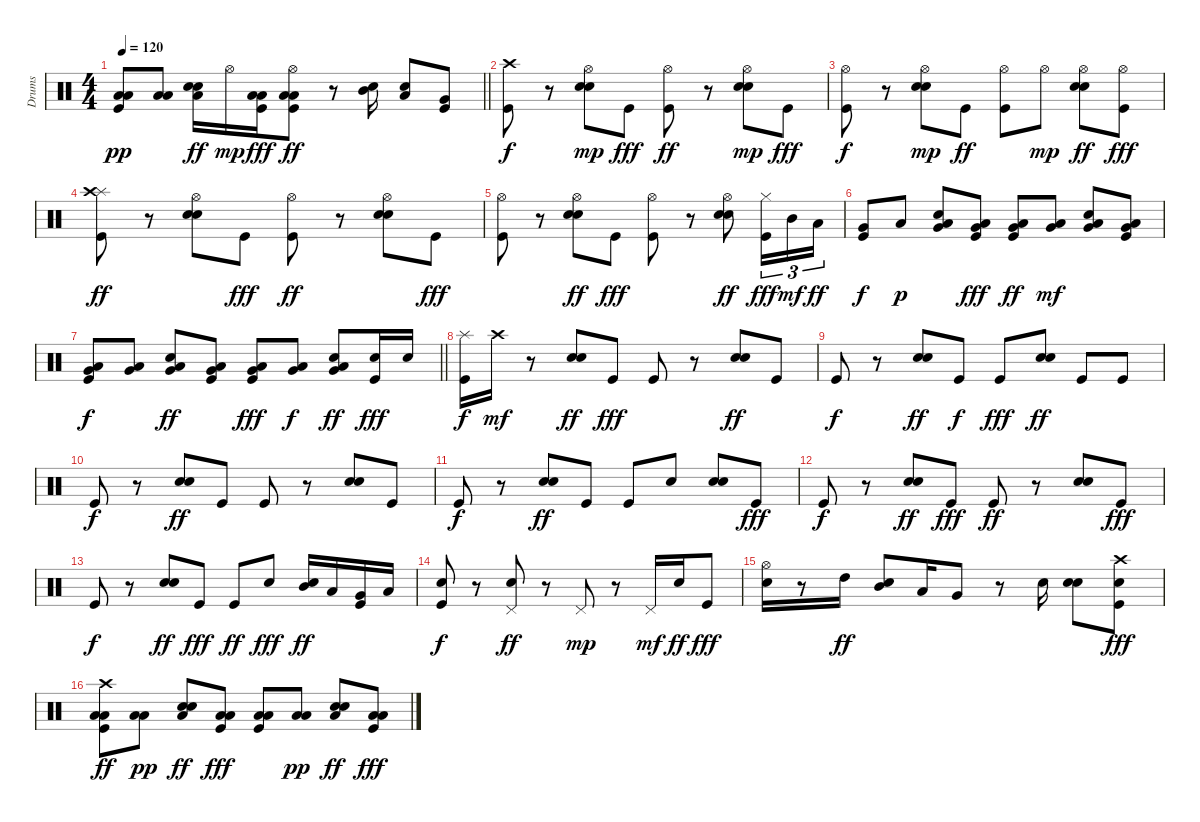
\track ("Drums" "Drums") {instrument percussion}
\staff {score}
\articulation defaults
\ts (4 4)
\tempo 120
\clef neutral
\barLineRight lightlight
\ks c
("Kick (hit)" "Low Tom (hit)" "Low Floor Tom (hit)").8{dy pp} ("Low Tom (hit)" "Low Floor Tom (hit)").8 ("Low Floor Tom (hit)" "Hand Clap (hit)" "Snare (hit) 2").16{dy ff} "Hi-Hat (open)".16{dy mp} ("Low Tom (hit)" "Low Floor Tom (hit)" "Kick (hit)").16{dy fff} ("Hi-Hat (open)" "Low Tom (hit)" "Low Floor Tom (hit)" "Kick (hit)").8{dy ff} r.8 ("Snare (hit) 2" "Mid Tom (hit)").16 ("Hand Clap (hit)" "Low Tom (hit)").8 ("Kick (hit)" "Very Low Tom (hit)").8 |
("Kick (hit)" "Crash high (hit)").8{dy f} r.8 ("Hand Clap (hit)" "Snare (hit) 2" "Hi-Hat (open)").8{dy mp} "Kick (hit)".8{dy fff} ("Hi-Hat (open)" "Kick (hit)").8{dy ff} r.8 ("Hand Clap (hit)" "Snare (hit) 2" "Hi-Hat (open)").8{dy mp} "Kick (hit)".8{dy fff} |
("Hi-Hat (open)" "Kick (hit)").8{dy f} r.8 ("Hand Clap (hit)" "Snare (hit) 2" "Hi-Hat (open)").8{dy mp} "Kick (hit)".8{dy ff} ("Hi-Hat (open)" "Kick (hit)").8 "Hi-Hat (open)".8{dy mp} ("Hi-Hat (open)" "Hand Clap (hit)" "Snare (hit) 2").8{dy ff} ("Hi-Hat (open)" "Kick (hit)").8{dy fff} |
("Kick (hit)" "Splash (hit)" "Crash high (hit)").8{dy ff} r.8 ("Snare (hit) 2" "Hi-Hat (open)" "Hand Clap (hit)").8 "Kick (hit)".8{dy fff} ("Hi-Hat (open)" "Kick (hit)").8{dy ff} r.8 ("Snare (hit) 2" "Hi-Hat (open)" "Hand Clap (hit)").8 "Kick (hit)".8{dy fff} |
("Hi-Hat (open)" "Kick (hit)").8 r.8 ("Snare (hit) 2" "Hi-Hat (open)" "Hand Clap (hit)").8{dy ff} "Kick (hit)".8{dy fff} ("Hi-Hat (open)" "Kick (hit)").8 r.8 ("Hi-Hat (open)" "Hand Clap (hit)" "Snare (hit) 2").8{dy ff} ("Hi-Hat (closed)" "Kick (hit)").16{tu (3 2) dy fff} "Mid Tom (hit)".16{tu (3 2) dy mf} "Low Tom (hit)".16{tu (3 2) dy ff} |
("Very Low Tom (hit)" "Kick (hit)").8{dy f} "Low Tom (hit)".8{dy p} ("Hand Clap (hit)" "Very Low Tom (hit)" "Low Tom (hit)").8 ("Very Low Tom (hit)" "Low Tom (hit)" "Kick (hit)").8{dy fff} ("Very Low Tom (hit)" "Low Tom (hit)" "Kick (hit)").8{dy ff} ("Very Low Tom (hit)" "Low Tom (hit)").8{dy mf} ("Hand Clap (hit)" "Very Low Tom (hit)" "Low Tom (hit)").8 ("Kick (hit)" "Very Low Tom (hit)" "Low Tom (hit)").8 |
\barLineRight lightlight
("Very Low Tom (hit)" "Low Tom (hit)" "Kick (hit)").8{dy f} ("Very Low Tom (hit)" "Low Tom (hit)").8 ("Hand Clap (hit)" "Very Low Tom (hit)" "Low Tom (hit)").8{dy ff} ("Kick (hit)" "Very Low Tom (hit)" "Low Tom (hit)").8 ("Very Low Tom (hit)" "Low Tom (hit)" "Kick (hit)").8{dy fff} ("Very Low Tom (hit)" "Low Tom (hit)").8{dy f} ("Very Low Tom (hit)" "Low Tom (hit)" "Hand Clap (hit)").8{dy ff} ("Snare (hit) 2" "Kick (hit)").16{dy fff} "Snare (hit) 2".16 |
("Kick (hit)" "Splash (hit)").16{dy f} "Crash high (hit)".16{dy mf} r.8 ("Snare (hit) 2" "Hand Clap (hit)").8{dy ff} "Kick (hit)".8{dy fff} "Kick (hit)".8 r.8 ("Hand Clap (hit)" "Snare (hit) 2").8{dy ff} "Kick (hit)".8 |
"Kick (hit)".8{dy f} r.8 ("Hand Clap (hit)" "Snare (hit) 2").8{dy ff} "Kick (hit)".8{dy f} "Kick (hit)".8{dy fff} ("Hand Clap (hit)" "Snare (hit) 2").8{dy ff} "Kick (hit)".8 "Kick (hit)".8 |
"Kick (hit)".8{dy f} r.8 ("Snare (hit) 2" "Hand Clap (hit)").8{dy ff} "Kick (hit)".8 "Kick (hit)".8 r.8 ("Snare (hit) 2" "Hand Clap (hit)").8 "Kick (hit)".8 |
"Kick (hit)".8{dy f} r.8 ("Snare (hit) 2" "Hand Clap (hit)").8{dy ff} "Kick (hit)".8 "Kick (hit)".8 "Snare (hit) 2".8 ("Hand Clap (hit)" "Snare (hit) 2").8 "Kick (hit)".8{dy fff} |
"Kick (hit)".8{dy f} r.8 ("Hand Clap (hit)" "Snare (hit) 2").8{dy ff} "Kick (hit)".8{dy fff} "Kick (hit)".8{dy ff} r.8 ("Snare (hit) 2" "Hand Clap (hit)").8 "Kick (hit)".8{dy fff} |
"Kick (hit)".8{dy f} r.8 ("Snare (hit) 2" "Hand Clap (hit)").8{dy ff} "Kick (hit)".8{dy fff} "Kick (hit)".8{dy ff} "Snare (hit) 2".8{dy fff} ("Mid Tom (hit)" "Hand Clap (hit)").16{dy ff} "Low Tom (hit)".16 ("Very Low Tom (hit)" "Kick (hit)").16 "Low Floor Tom (hit)".16 |
("Kick (hit)" "Snare (hit) 2").8{dy f} r.8 ("Pedal Hi-Hat (hit)" "Hand Clap (hit)").8{dy ff} r.8 "Pedal Hi-Hat (hit)".8{dy mp} r.8 "Pedal Hi-Hat (hit)".16{dy mf} "Hand Clap (hit)".16{dy ff} "Kick (hit)".8{dy fff} |
("Hi-Hat (open)" "Snare (hit) 2").16 r.8 "High Tom (hit)".16{dy ff} ("Mid Tom (hit)" "Hand Clap (hit)").8 "Low Tom (hit)".16 "Very Low Tom (hit)".8 r.8 "Snare (hit) 2".16 ("Snare (hit) 2" "Hand Clap (hit)").8 ("Crash high (hit)" "Snare (hit) 2" "Kick (hit)").8{dy fff} |
("Low Tom (hit)" "Low Floor Tom (hit)" "Kick (hit)" "Crash high (hit)").8{dy ff} ("Low Tom (hit)" "Low Floor Tom (hit)").8{dy pp} ("Snare (hit) 2" "Low Floor Tom (hit)" "Hand Clap (hit)").8{dy ff} ("Low Tom (hit)" "Low Floor Tom (hit)" "Kick (hit)").8{dy fff} ("Low Tom (hit)" "Low Floor Tom (hit)" "Kick (hit)").8 ("Low Tom (hit)" "Low Floor Tom (hit)").8{dy pp} ("Low Floor Tom (hit)" "Snare (hit) 2" "Hand Clap (hit)").8{dy ff} ("Low Tom (hit)" "Low Floor Tom (hit)" "Kick (hit)").8{dy fff}
